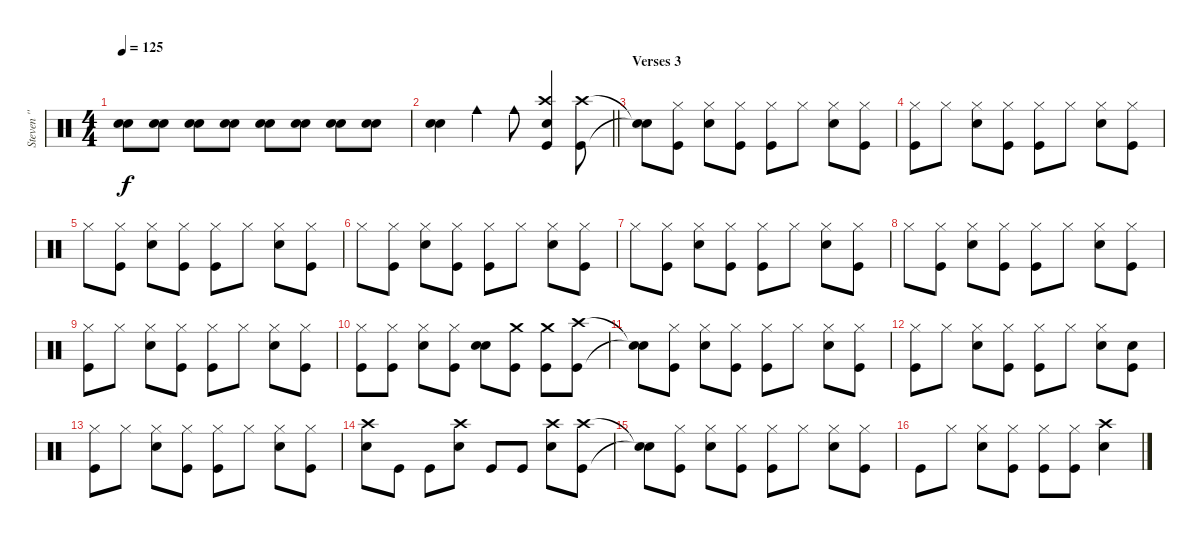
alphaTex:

\track ("Steven '' Popcorn '' Adler" "Steven '' ") {instrument percussion}
\staff {score}
\articulation defaults
\ts (4 4)
\tempo 125
\clef neutral
\ks c
("Snare (hit) 2" "Snare (hit) 2").8{dy f} ("Snare (hit) 2" "Snare (hit) 2").8 ("Snare (hit) 2" "Snare (hit) 2").8 ("Snare (hit) 2" "Snare (hit) 2").8 ("Snare (hit) 2" "Snare (hit) 2").8 ("Snare (hit) 2" "Snare (hit) 2").8 ("Snare (hit) 2" "Snare (hit) 2").8 ("Snare (hit) 2" "Snare (hit) 2").8 |
\barLineRight lightlight
("Snare (hit) 2" "Snare (hit) 2").4 "Cowbell medium (hit)".4 "Cowbell medium (hit)".8 ("Crash high (hit)" "Kick (hit)" "Snare (hit)").4 ("Crash high (hit)" "Kick (hit)").8 |
\section ("" "Verses 3")
("Snare (hit)"{t} "Snare (hit)"{t}).8 ("Hi-Hat (closed)" "Kick (hit)").8 ("Hi-Hat (closed)" "Snare (hit) 2").8 ("Hi-Hat (closed)" "Kick (hit)").8 ("Hi-Hat (closed)" "Kick (hit)").8 "Hi-Hat (closed)".8 ("Hi-Hat (closed)" "Snare (hit) 2").8 ("Hi-Hat (closed)" "Kick (hit)").8 |
("Hi-Hat (closed)" "Kick (hit)").8 "Hi-Hat (closed)".8 ("Hi-Hat (closed)" "Snare (hit) 2").8 ("Hi-Hat (closed)" "Kick (hit)").8 ("Hi-Hat (closed)" "Kick (hit)").8 "Hi-Hat (closed)".8 ("Hi-Hat (closed)" "Snare (hit) 2").8 ("Hi-Hat (closed)" "Kick (hit)").8 |
"Hi-Hat (closed)".8 ("Hi-Hat (closed)" "Kick (hit)").8 ("Hi-Hat (closed)" "Snare (hit) 2").8 ("Hi-Hat (closed)" "Kick (hit)").8 ("Hi-Hat (closed)" "Kick (hit)").8 "Hi-Hat (closed)".8 ("Hi-Hat (closed)" "Snare (hit) 2").8 ("Hi-Hat (closed)" "Kick (hit)").8 |
"Hi-Hat (closed)".8 ("Hi-Hat (closed)" "Kick (hit)").8 ("Hi-Hat (closed)" "Snare (hit) 2").8 ("Hi-Hat (closed)" "Kick (hit)").8 ("Hi-Hat (closed)" "Kick (hit)").8 "Hi-Hat (closed)".8 ("Hi-Hat (closed)" "Snare (hit) 2").8 ("Hi-Hat (closed)" "Kick (hit)").8 |
"Hi-Hat (closed)".8 ("Hi-Hat (closed)" "Kick (hit)").8 ("Hi-Hat (closed)" "Snare (hit) 2").8 ("Hi-Hat (closed)" "Kick (hit)").8 ("Hi-Hat (closed)" "Kick (hit)").8 "Hi-Hat (closed)".8 ("Hi-Hat (closed)" "Snare (hit) 2").8 ("Hi-Hat (closed)" "Kick (hit)").8 |
"Hi-Hat (closed)".8 ("Hi-Hat (closed)" "Kick (hit)").8 ("Hi-Hat (closed)" "Snare (hit) 2").8 ("Hi-Hat (closed)" "Kick (hit)").8 ("Hi-Hat (closed)" "Kick (hit)").8 "Hi-Hat (closed)".8 ("Hi-Hat (closed)" "Snare (hit) 2").8 ("Hi-Hat (closed)" "Kick (hit)").8 |
("Hi-Hat (closed)" "Kick (hit)").8 "Hi-Hat (closed)".8 ("Hi-Hat (closed)" "Snare (hit) 2").8 ("Hi-Hat (closed)" "Kick (hit)").8 ("Hi-Hat (closed)" "Kick (hit)").8 "Hi-Hat (closed)".8 ("Hi-Hat (closed)" "Snare (hit) 2").8 ("Hi-Hat (closed)" "Kick (hit)").8 |
("Hi-Hat (closed)" "Kick (hit)").8 ("Hi-Hat (closed)" "Kick (hit)").8 ("Hi-Hat (closed)" "Snare (hit) 2").8 ("Hi-Hat (closed)" "Kick (hit)").8 ("Snare (hit) 2" "Snare (hit) 2").8 ("Crash medium (hit)" "Kick (hit)").8 ("Crash medium (hit)" "Kick (hit)").8 ("Crash high (hit)" "Kick (hit)").8 |
("Snare (hit)"{t} "Snare (hit)"{t}).8 ("Hi-Hat (closed)" "Kick (hit)").8 ("Hi-Hat (closed)" "Snare (hit) 2").8 ("Hi-Hat (closed)" "Kick (hit)").8 ("Hi-Hat (closed)" "Kick (hit)").8 "Hi-Hat (closed)".8 ("Hi-Hat (closed)" "Snare (hit) 2").8 ("Hi-Hat (closed)" "Kick (hit)").8 |
("Hi-Hat (closed)" "Kick (hit)").8 "Hi-Hat (closed)".8 ("Hi-Hat (closed)" "Snare (hit) 2").8 ("Hi-Hat (closed)" "Kick (hit)").8 ("Hi-Hat (closed)" "Kick (hit)").8 "Hi-Hat (closed)".8 ("Hi-Hat (closed)" "Snare (hit) 2").8 ("Snare (hit)" "Kick (hit)").8 |
("Hi-Hat (closed)" "Kick (hit)").8 "Hi-Hat (closed)".8 ("Hi-Hat (closed)" "Snare (hit) 2").8 ("Hi-Hat (closed)" "Kick (hit)").8 ("Hi-Hat (closed)" "Kick (hit)").8 "Hi-Hat (closed)".8 ("Hi-Hat (closed)" "Snare (hit) 2").8 ("Hi-Hat (closed)" "Kick (hit)").8 |
("Crash high (hit)" "Snare (hit) 2").8 "Kick (hit)".8 "Kick (hit)".8 ("Crash high (hit)" "Snare (hit) 2").8 "Kick (hit)".8 "Kick (hit)".8 ("Crash high (hit)" "Snare (hit) 2").8 ("Crash high (hit)" "Kick (hit)").8 |
("Snare (hit)"{t} "Snare (hit)"{t}).8 ("Hi-Hat (closed)" "Kick (hit)").8 ("Hi-Hat (closed)" "Snare (hit) 2").8 ("Hi-Hat (closed)" "Kick (hit)").8 ("Hi-Hat (closed)" "Kick (hit)").8 "Hi-Hat (closed)".8 ("Hi-Hat (closed)" "Snare (hit) 2").8 ("Hi-Hat (closed)" "Kick (hit)").8 |
"Kick (hit)".8 "Hi-Hat (closed)".8 ("Hi-Hat (closed)" "Snare (hit) 2").8 ("Hi-Hat (closed)" "Kick (hit)").8 ("Hi-Hat (closed)" "Kick (hit)").8 ("Hi-Hat (closed)" "Kick (hit)").8 ("Crash high (hit)" "Snare (hit) 2").4
